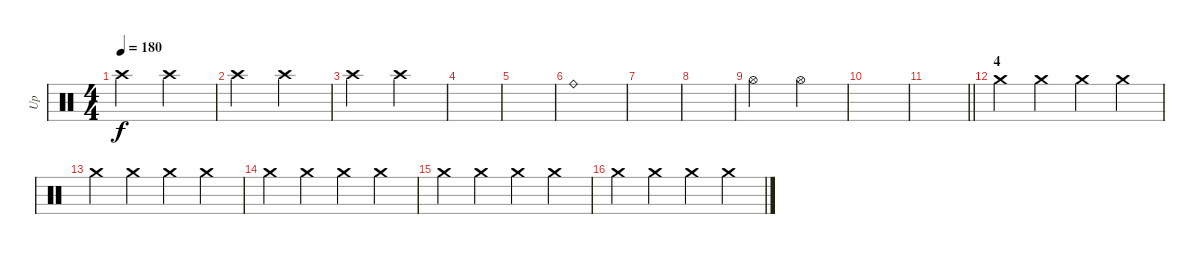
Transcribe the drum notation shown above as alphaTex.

\track ("Up" "Up") {instrument percussion}
\staff {score}
\articulation defaults
\ts (4 4)
\tempo 180
\clef neutral
\ks c "Crash high (hit)".2{dy f} "Crash high (hit)".2
|
"Crash high (hit)".2 "Crash high (hit)".2 |
"Crash high (hit)".2 "Crash high (hit)".2 |
|
|
"Ride (bell)".1 |
|
|
"Hi-Hat (open)".2 "Hi-Hat (open)".2 |
|
\barLineRight lightlight
|
\section ("" "4")
"Crash medium (hit)".4 "Crash medium (hit)".4 "Crash medium (hit)".4 "Crash medium (hit)".4 |
"Crash medium (hit)".4 "Crash medium (hit)".4 "Crash medium (hit)".4 "Crash medium (hit)".4 |
"Crash medium (hit)".4 "Crash medium (hit)".4 "Crash medium (hit)".4 "Crash medium (hit)".4 |
"Crash medium (hit)".4 "Crash medium (hit)".4 "Crash medium (hit)".4 "Crash medium (hit)".4 |
"Crash medium (hit)".4 "Crash medium (hit)".4 "Crash medium (hit)".4 "Crash medium (hit)".4
